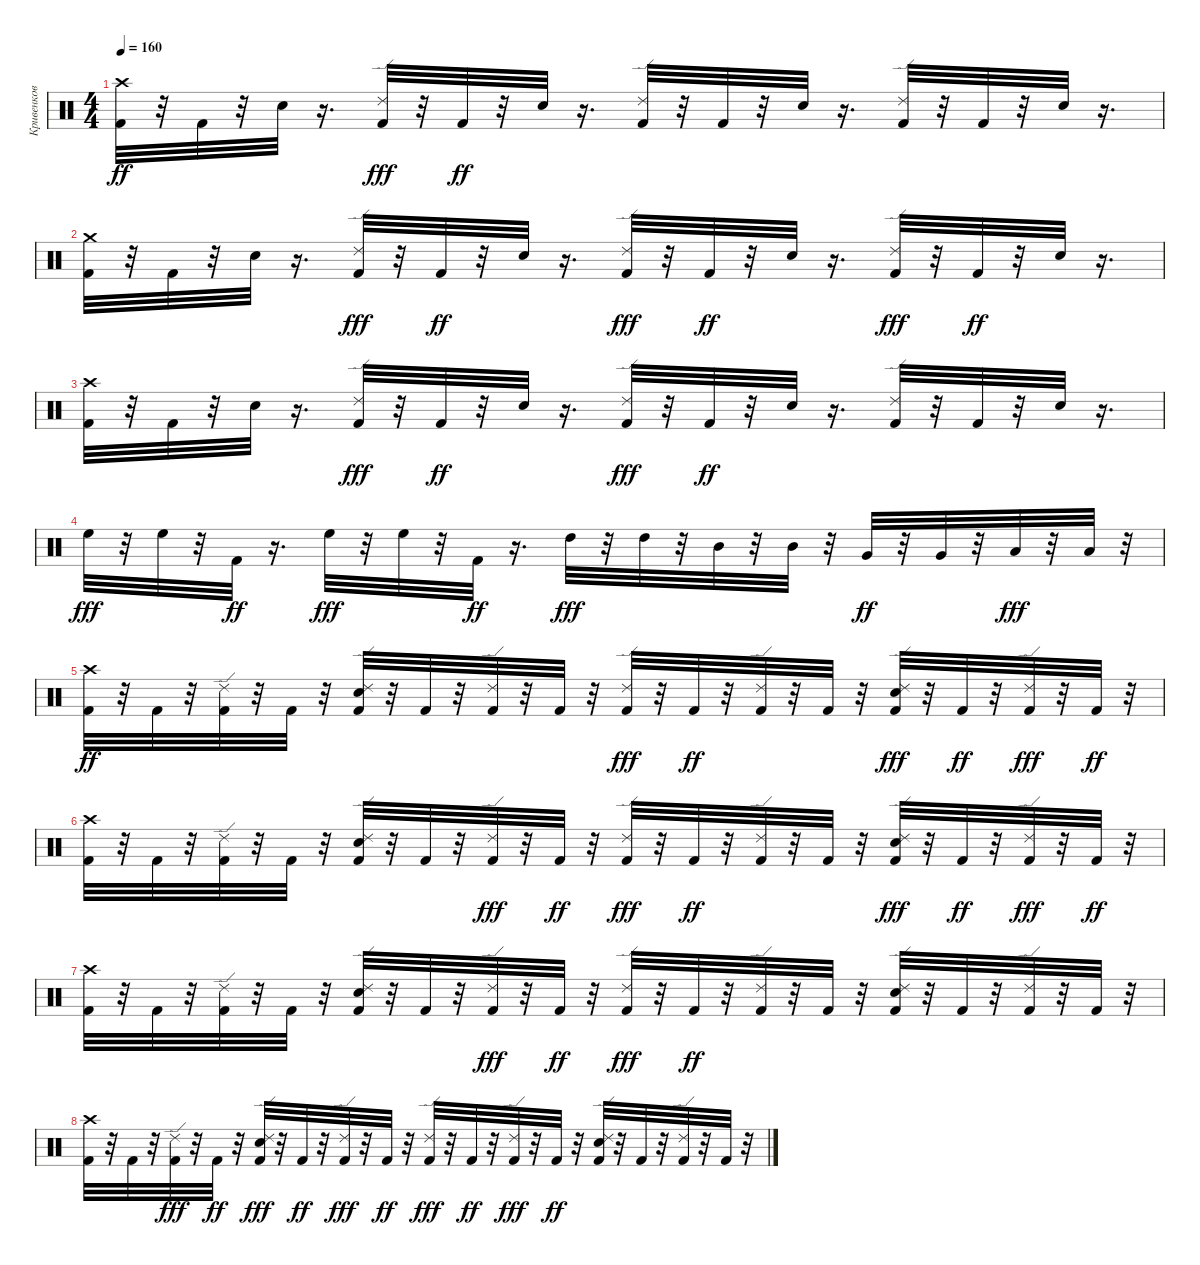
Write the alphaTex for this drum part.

\track ("Кривенков" "Кривенков") {instrument percussion}
\staff {score}
\articulation defaults
\ts (4 4)
\tempo 160
\clef neutral
\ks c
("Kick (hit) 2" "Crash high (hit)").32{dy ff} r.32 "Kick (hit) 2".32 r.32 "Electric Snare (hit)".32 r.16{d} ("Kick (hit) 2" "Ride (edge) 2").32{dy fff} r.32 "Kick (hit) 2".32{dy ff} r.32 "Electric Snare (hit)".32 r.16{d} ("Ride (edge) 2" "Kick (hit) 2").32 r.32 "Kick (hit) 2".32 r.32 "Electric Snare (hit)".32 r.16{d} ("Ride (edge) 2" "Kick (hit) 2").32 r.32 "Kick (hit) 2".32 r.32 "Electric Snare (hit)".32 r.16{d} |
("Kick (hit) 2" "Crash medium (hit)").32 r.32 "Kick (hit) 2".32 r.32 "Electric Snare (hit)".32 r.16{d} ("Kick (hit) 2" "Ride (edge) 2").32{dy fff} r.32 "Kick (hit) 2".32{dy ff} r.32 "Electric Snare (hit)".32 r.16{d} ("Kick (hit) 2" "Ride (edge) 2").32{dy fff} r.32 "Kick (hit) 2".32{dy ff} r.32 "Electric Snare (hit)".32 r.16{d} ("Kick (hit) 2" "Ride (edge) 2").32{dy fff} r.32 "Kick (hit) 2".32{dy ff} r.32 "Electric Snare (hit)".32 r.16{d} |
("Kick (hit) 2" "Crash high (hit)").32 r.32 "Kick (hit) 2".32 r.32 "Electric Snare (hit)".32 r.16{d} ("Kick (hit) 2" "Ride (edge) 2").32{dy fff} r.32 "Kick (hit) 2".32{dy ff} r.32 "Electric Snare (hit)".32 r.16{d} ("Kick (hit) 2" "Ride (edge) 2").32{dy fff} r.32 "Kick (hit) 2".32{dy ff} r.32 "Electric Snare (hit)".32 r.16{d} ("Ride (edge) 2" "Kick (hit) 2").32 r.32 "Kick (hit) 2".32 r.32 "Electric Snare (hit)".32 r.16{d} |
"High Floor Tom (hit)".32{dy fff} r.32 "High Floor Tom (hit)".32 r.32 "Kick (hit) 2".32{dy ff} r.16{d} "High Floor Tom (hit)".32{dy fff} r.32 "High Floor Tom (hit)".32 r.32 "Kick (hit) 2".32{dy ff} r.16{d} "High Tom (hit)".32{dy fff} r.32 "High Tom (hit)".32 r.32 "Mid Tom (hit)".32 r.32 "Mid Tom (hit)".32 r.32 "Very Low Tom (hit)".32{dy ff} r.32 "Very Low Tom (hit)".32 r.32 "Low Tom (hit)".32{dy fff} r.32 "Low Tom (hit)".32 r.32 |
("Kick (hit) 2" "Crash high (hit)").32{dy ff} r.32 "Kick (hit) 2".32 r.32 ("Ride (edge) 2" "Kick (hit) 2").32 r.32 "Kick (hit) 2".32 r.32 ("Electric Snare (hit)" "Ride (edge) 2" "Kick (hit) 2").32 r.32 "Kick (hit) 2".32 r.32 ("Ride (edge) 2" "Kick (hit) 2").32 r.32 "Kick (hit) 2".32 r.32 ("Kick (hit) 2" "Ride (edge) 2").32{dy fff} r.32 "Kick (hit) 2".32{dy ff} r.32 ("Ride (edge) 2" "Kick (hit) 2").32 r.32 "Kick (hit) 2".32 r.32 ("Electric Snare (hit)" "Kick (hit) 2" "Ride (edge) 2").32{dy fff} r.32 "Kick (hit) 2".32{dy ff} r.32 ("Kick (hit) 2" "Ride (edge) 2").32{dy fff} r.32 "Kick (hit) 2".32{dy ff} r.32 |
("Crash high (hit)" "Kick (hit) 2").32 r.32 "Kick (hit) 2".32 r.32 ("Ride (edge) 2" "Kick (hit) 2").32 r.32 "Kick (hit) 2".32 r.32 ("Electric Snare (hit)" "Ride (edge) 2" "Kick (hit) 2").32 r.32 "Kick (hit) 2".32 r.32 ("Kick (hit) 2" "Ride (edge) 2").32{dy fff} r.32 "Kick (hit) 2".32{dy ff} r.32 ("Kick (hit) 2" "Ride (edge) 2").32{dy fff} r.32 "Kick (hit) 2".32{dy ff} r.32 ("Ride (edge) 2" "Kick (hit) 2").32 r.32 "Kick (hit) 2".32 r.32 ("Kick (hit) 2" "Electric Snare (hit)" "Ride (edge) 2").32{dy fff} r.32 "Kick (hit) 2".32{dy ff} r.32 ("Kick (hit) 2" "Ride (edge) 2").32{dy fff} r.32 "Kick (hit) 2".32{dy ff} r.32 |
("Crash high (hit)" "Kick (hit) 2").32 r.32 "Kick (hit) 2".32 r.32 ("Ride (edge) 2" "Kick (hit) 2").32 r.32 "Kick (hit) 2".32 r.32 ("Kick (hit) 2" "Ride (edge) 2" "Electric Snare (hit)").32 r.32 "Kick (hit) 2".32 r.32 ("Kick (hit) 2" "Ride (edge) 2").32{dy fff} r.32 "Kick (hit) 2".32{dy ff} r.32 ("Kick (hit) 2" "Ride (edge) 2").32{dy fff} r.32 "Kick (hit) 2".32{dy ff} r.32 ("Ride (edge) 2" "Kick (hit) 2").32 r.32 "Kick (hit) 2".32 r.32 ("Electric Snare (hit)" "Ride (edge) 2" "Kick (hit) 2").32 r.32 "Kick (hit) 2".32 r.32 ("Ride (edge) 2" "Kick (hit) 2").32 r.32 "Kick (hit) 2".32 r.32 |
("Crash high (hit)" "Kick (hit) 2").32 r.32 "Kick (hit) 2".32 r.32 ("Kick (hit) 2" "Ride (edge) 2").32{dy fff} r.32 "Kick (hit) 2".32{dy ff} r.32 ("Kick (hit) 2" "Electric Snare (hit)" "Ride (edge) 2").32{dy fff} r.32 "Kick (hit) 2".32{dy ff} r.32 ("Kick (hit) 2" "Ride (edge) 2").32{dy fff} r.32 "Kick (hit) 2".32{dy ff} r.32 ("Kick (hit) 2" "Ride (edge) 2").32{dy fff} r.32 "Kick (hit) 2".32{dy ff} r.32 ("Kick (hit) 2" "Ride (edge) 2").32{dy fff} r.32 "Kick (hit) 2".32{dy ff} r.32 ("Ride (edge) 2" "Electric Snare (hit)" "Kick (hit) 2").32 r.32 "Kick (hit) 2".32 r.32 ("Ride (edge) 2" "Kick (hit) 2").32 r.32 "Kick (hit) 2".32 r.32
